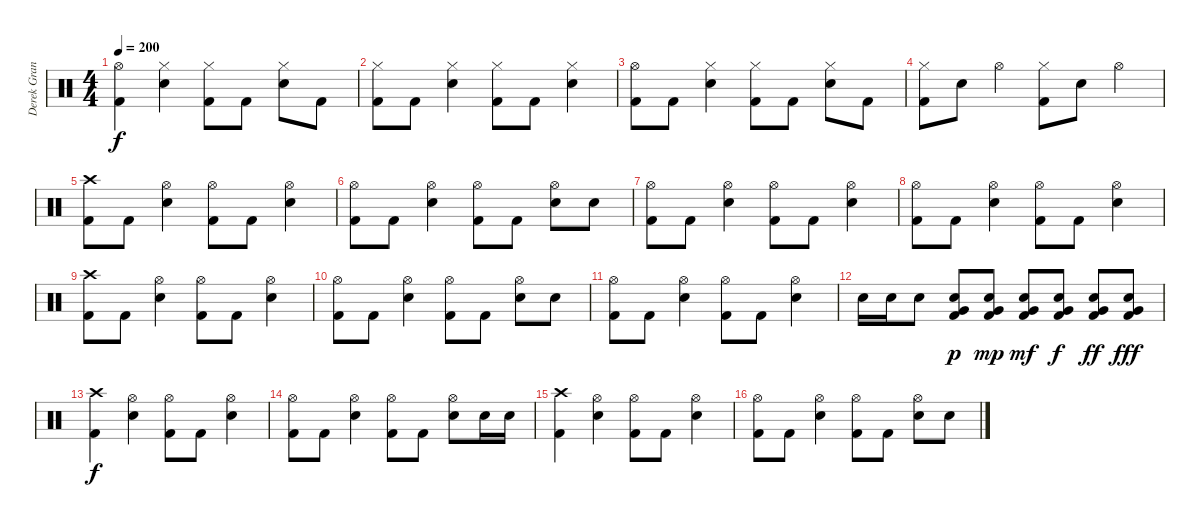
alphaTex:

\track ("Derek Grant" "Derek Gran") {instrument percussion}
\staff {score}
\articulation defaults
\ts (4 4)
\tempo 200
\clef neutral
\ks c
("Hi-Hat (open)" "Kick (hit) 2").4{dy f} ("Hi-Hat (closed)" "Electric Snare (hit)").4 ("Hi-Hat (closed)" "Kick (hit) 2").8 "Kick (hit) 2".8 ("Hi-Hat (closed)" "Electric Snare (hit)").8 "Kick (hit) 2".8 |
("Hi-Hat (closed)" "Kick (hit) 2").8 "Kick (hit) 2".8 ("Hi-Hat (closed)" "Electric Snare (hit)").4 ("Hi-Hat (closed)" "Kick (hit) 2").8 "Kick (hit) 2".8 ("Hi-Hat (closed)" "Electric Snare (hit)").4 |
("Hi-Hat (open)" "Kick (hit) 2").8 "Kick (hit) 2".8 ("Hi-Hat (closed)" "Electric Snare (hit)").4 ("Hi-Hat (closed)" "Kick (hit) 2").8 "Kick (hit) 2".8 ("Hi-Hat (closed)" "Electric Snare (hit)").8 "Kick (hit) 2".8 |
("Hi-Hat (closed)" "Kick (hit) 2").8 "Electric Snare (hit)".8 "Hi-Hat (open)".4 ("Hi-Hat (closed)" "Kick (hit) 2").8 "Electric Snare (hit)".8 "Hi-Hat (open)".4 |
("Crash high (hit)" "Kick (hit) 2").8 "Kick (hit) 2".8 ("Hi-Hat (open)" "Electric Snare (hit)").4 ("Hi-Hat (open)" "Kick (hit) 2").8 "Kick (hit) 2".8 ("Hi-Hat (open)" "Electric Snare (hit)").4 |
("Hi-Hat (open)" "Kick (hit) 2").8 "Kick (hit) 2".8 ("Hi-Hat (open)" "Electric Snare (hit)").4 ("Hi-Hat (open)" "Kick (hit) 2").8 "Kick (hit) 2".8 ("Hi-Hat (open)" "Electric Snare (hit)").8 "Electric Snare (hit)".8 |
("Hi-Hat (open)" "Kick (hit) 2").8 "Kick (hit) 2".8 ("Hi-Hat (open)" "Electric Snare (hit)").4 ("Hi-Hat (open)" "Kick (hit) 2").8 "Kick (hit) 2".8 ("Hi-Hat (open)" "Electric Snare (hit)").4 |
("Hi-Hat (open)" "Kick (hit) 2").8 "Kick (hit) 2".8 ("Hi-Hat (open)" "Electric Snare (hit)").4 ("Hi-Hat (open)" "Kick (hit) 2").8 "Kick (hit) 2".8 ("Hi-Hat (open)" "Electric Snare (hit)").4 |
("Crash high (hit)" "Kick (hit) 2").8 "Kick (hit) 2".8 ("Hi-Hat (open)" "Electric Snare (hit)").4 ("Hi-Hat (open)" "Kick (hit) 2").8 "Kick (hit) 2".8 ("Hi-Hat (open)" "Electric Snare (hit)").4 |
("Hi-Hat (open)" "Kick (hit) 2").8 "Kick (hit) 2".8 ("Hi-Hat (open)" "Electric Snare (hit)").4 ("Hi-Hat (open)" "Kick (hit) 2").8 "Kick (hit) 2".8 ("Hi-Hat (open)" "Electric Snare (hit)").8 "Electric Snare (hit)".8 |
("Hi-Hat (open)" "Kick (hit) 2").8 "Kick (hit) 2".8 ("Hi-Hat (open)" "Electric Snare (hit)").4 ("Hi-Hat (open)" "Kick (hit) 2").8 "Kick (hit) 2".8 ("Hi-Hat (open)" "Electric Snare (hit)").4 |
"Electric Snare (hit)".16 "Electric Snare (hit)".16 "Electric Snare (hit)".8 ("Very Low Tom (hit)" "Electric Snare (hit)" "Kick (hit) 2").8{dy p} ("Very Low Tom (hit)" "Electric Snare (hit)" "Kick (hit) 2").8{dy mp} ("Very Low Tom (hit)" "Electric Snare (hit)" "Kick (hit) 2").8{dy mf} ("Very Low Tom (hit)" "Electric Snare (hit)" "Kick (hit) 2").8{dy f} ("Very Low Tom (hit)" "Electric Snare (hit)" "Kick (hit) 2").8{dy ff} ("Very Low Tom (hit)" "Electric Snare (hit)" "Kick (hit) 2").8{dy fff} |
("Crash high (hit)" "Kick (hit) 2").4{dy f} ("Hi-Hat (open)" "Electric Snare (hit)").4 ("Hi-Hat (open)" "Kick (hit) 2").8 "Kick (hit) 2".8 ("Hi-Hat (open)" "Electric Snare (hit)").4 |
("Hi-Hat (open)" "Kick (hit) 2").8 "Kick (hit) 2".8 ("Hi-Hat (open)" "Electric Snare (hit)").4 ("Hi-Hat (open)" "Kick (hit) 2").8 "Kick (hit) 2".8 ("Hi-Hat (open)" "Electric Snare (hit)").8 "Electric Snare (hit)".16 "Electric Snare (hit)".16 |
("Crash high (hit)" "Kick (hit) 2").4 ("Hi-Hat (open)" "Electric Snare (hit)").4 ("Hi-Hat (open)" "Kick (hit) 2").8 "Kick (hit) 2".8 ("Hi-Hat (open)" "Electric Snare (hit)").4 |
("Hi-Hat (open)" "Kick (hit) 2").8 "Kick (hit) 2".8 ("Hi-Hat (open)" "Electric Snare (hit)").4 ("Hi-Hat (open)" "Kick (hit) 2").8 "Kick (hit) 2".8 ("Hi-Hat (open)" "Electric Snare (hit)").8 "Electric Snare (hit)".8
